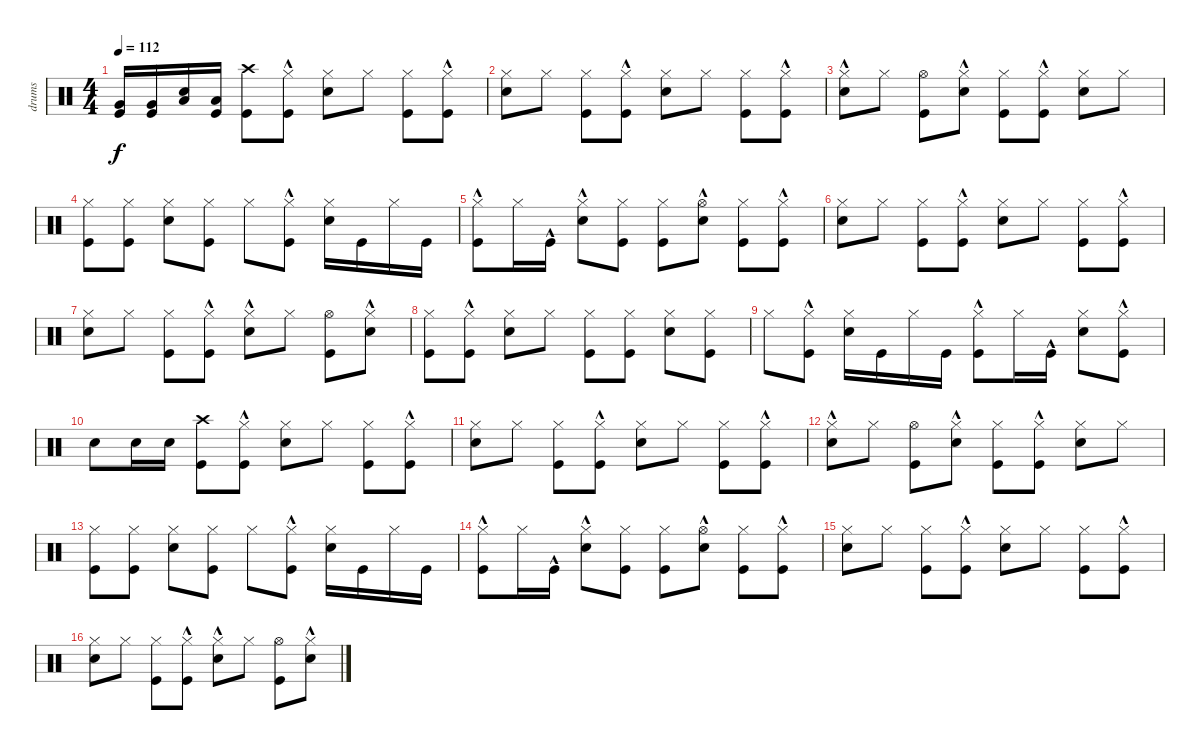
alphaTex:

\track ("drums" "drums") {instrument percussion}
\staff {score}
\articulation defaults
\ts (4 4)
\tempo 112
\clef neutral
\ks c
("Kick (hit)" "Very Low Tom (hit)").16{dy f} ("Kick (hit)" "Very Low Tom (hit)").16 ("Snare (hit) 2" "Low Floor Tom (hit)").16 ("Kick (hit)" "Low Floor Tom (hit)").16 ("Kick (hit)" "Crash high (hit)").8 ("Kick (hit)"{hac} "Hi-Hat (closed)").8 ("Snare (hit) 2" "Hi-Hat (closed)").8 "Hi-Hat (closed)".8 ("Kick (hit)" "Hi-Hat (closed)").8 ("Kick (hit)"{hac} "Hi-Hat (closed)").8 |
("Snare (hit) 2" "Hi-Hat (closed)").8 "Hi-Hat (closed)".8 ("Kick (hit)" "Hi-Hat (closed)").8 ("Kick (hit)"{hac} "Hi-Hat (closed)").8 ("Snare (hit) 2" "Hi-Hat (closed)").8 "Hi-Hat (closed)".8 ("Kick (hit)" "Hi-Hat (closed)").8 ("Kick (hit)"{hac} "Hi-Hat (closed)").8 |
("Snare (hit) 2"{hac} "Hi-Hat (closed)").8 "Hi-Hat (closed)".8 ("Kick (hit)" "Hi-Hat (open)").8 ("Snare (hit) 2"{hac} "Hi-Hat (closed)").8 ("Kick (hit)" "Hi-Hat (closed)").8 ("Kick (hit)"{hac} "Hi-Hat (closed)").8 ("Snare (hit) 2" "Hi-Hat (closed)").8 "Hi-Hat (closed)".8 |
("Kick (hit)" "Hi-Hat (closed)").8 ("Kick (hit)" "Hi-Hat (closed)").8 ("Snare (hit) 2" "Hi-Hat (closed)").8 ("Kick (hit)" "Hi-Hat (closed)").8 "Hi-Hat (closed)".8 ("Kick (hit)"{hac} "Hi-Hat (closed)").8 ("Snare (hit) 2" "Hi-Hat (closed)").16 "Kick (hit)".16 "Hi-Hat (closed)".16 "Kick (hit)".16 |
("Kick (hit)"{hac} "Hi-Hat (closed)").8 "Hi-Hat (closed)".16 "Kick (hit)"{hac}.16 ("Snare (hit) 2"{hac} "Hi-Hat (closed)").8 ("Kick (hit)" "Hi-Hat (closed)").8 ("Kick (hit)" "Hi-Hat (closed)").8 ("Snare (hit) 2"{hac} "Hi-Hat (open)").8 ("Kick (hit)" "Hi-Hat (closed)").8 ("Kick (hit)"{hac} "Hi-Hat (closed)").8 |
("Snare (hit) 2" "Hi-Hat (closed)").8 "Hi-Hat (closed)".8 ("Kick (hit)" "Hi-Hat (closed)").8 ("Kick (hit)"{hac} "Hi-Hat (closed)").8 ("Snare (hit) 2" "Hi-Hat (closed)").8 "Hi-Hat (closed)".8 ("Kick (hit)" "Hi-Hat (closed)").8 ("Kick (hit)"{hac} "Hi-Hat (closed)").8 |
("Snare (hit) 2" "Hi-Hat (closed)").8 "Hi-Hat (closed)".8 ("Kick (hit)" "Hi-Hat (closed)").8 ("Kick (hit)"{hac} "Hi-Hat (closed)").8 ("Snare (hit) 2"{hac} "Hi-Hat (closed)").8 "Hi-Hat (closed)".8 ("Kick (hit)" "Hi-Hat (open)").8 ("Snare (hit) 2"{hac} "Hi-Hat (closed)").8 |
("Kick (hit)" "Hi-Hat (closed)").8 ("Kick (hit)"{hac} "Hi-Hat (closed)").8 ("Snare (hit) 2" "Hi-Hat (closed)").8 "Hi-Hat (closed)".8 ("Kick (hit)" "Hi-Hat (closed)").8 ("Kick (hit)" "Hi-Hat (closed)").8 ("Snare (hit) 2" "Hi-Hat (closed)").8 ("Kick (hit)" "Hi-Hat (closed)").8 |
"Hi-Hat (closed)".8 ("Kick (hit)"{hac} "Hi-Hat (closed)").8 ("Snare (hit) 2" "Hi-Hat (closed)").16 "Kick (hit)".16 "Hi-Hat (closed)".16 "Kick (hit)".16 ("Kick (hit)"{hac} "Hi-Hat (closed)").8 "Hi-Hat (closed)".16 "Kick (hit)"{hac}.16 ("Snare (hit) 2" "Hi-Hat (closed)").8 ("Kick (hit)"{hac} "Hi-Hat (closed)").8 |
"Snare (hit) 2".8 "Snare (hit) 2".16 "Snare (hit) 2".16 ("Kick (hit)" "Crash high (hit)").8 ("Kick (hit)"{hac} "Hi-Hat (closed)").8 ("Snare (hit) 2" "Hi-Hat (closed)").8 "Hi-Hat (closed)".8 ("Kick (hit)" "Hi-Hat (closed)").8 ("Kick (hit)"{hac} "Hi-Hat (closed)").8 |
("Snare (hit) 2" "Hi-Hat (closed)").8 "Hi-Hat (closed)".8 ("Kick (hit)" "Hi-Hat (closed)").8 ("Kick (hit)"{hac} "Hi-Hat (closed)").8 ("Snare (hit) 2" "Hi-Hat (closed)").8 "Hi-Hat (closed)".8 ("Kick (hit)" "Hi-Hat (closed)").8 ("Kick (hit)"{hac} "Hi-Hat (closed)").8 |
("Snare (hit) 2"{hac} "Hi-Hat (closed)").8 "Hi-Hat (closed)".8 ("Kick (hit)" "Hi-Hat (open)").8 ("Snare (hit) 2"{hac} "Hi-Hat (closed)").8 ("Kick (hit)" "Hi-Hat (closed)").8 ("Kick (hit)"{hac} "Hi-Hat (closed)").8 ("Snare (hit) 2" "Hi-Hat (closed)").8 "Hi-Hat (closed)".8 |
("Kick (hit)" "Hi-Hat (closed)").8 ("Kick (hit)" "Hi-Hat (closed)").8 ("Snare (hit) 2" "Hi-Hat (closed)").8 ("Kick (hit)" "Hi-Hat (closed)").8 "Hi-Hat (closed)".8 ("Kick (hit)"{hac} "Hi-Hat (closed)").8 ("Snare (hit) 2" "Hi-Hat (closed)").16 "Kick (hit)".16 "Hi-Hat (closed)".16 "Kick (hit)".16 |
("Kick (hit)"{hac} "Hi-Hat (closed)").8 "Hi-Hat (closed)".16 "Kick (hit)"{hac}.16 ("Snare (hit) 2"{hac} "Hi-Hat (closed)").8 ("Kick (hit)" "Hi-Hat (closed)").8 ("Kick (hit)" "Hi-Hat (closed)").8 ("Snare (hit) 2"{hac} "Hi-Hat (open)").8 ("Kick (hit)" "Hi-Hat (closed)").8 ("Kick (hit)"{hac} "Hi-Hat (closed)").8 |
("Snare (hit) 2" "Hi-Hat (closed)").8 "Hi-Hat (closed)".8 ("Kick (hit)" "Hi-Hat (closed)").8 ("Kick (hit)"{hac} "Hi-Hat (closed)").8 ("Snare (hit) 2" "Hi-Hat (closed)").8 "Hi-Hat (closed)".8 ("Kick (hit)" "Hi-Hat (closed)").8 ("Kick (hit)"{hac} "Hi-Hat (closed)").8 |
("Snare (hit) 2" "Hi-Hat (closed)").8 "Hi-Hat (closed)".8 ("Kick (hit)" "Hi-Hat (closed)").8 ("Kick (hit)"{hac} "Hi-Hat (closed)").8 ("Snare (hit) 2"{hac} "Hi-Hat (closed)").8 "Hi-Hat (closed)".8 ("Kick (hit)" "Hi-Hat (open)").8 ("Snare (hit) 2"{hac} "Hi-Hat (closed)").8
